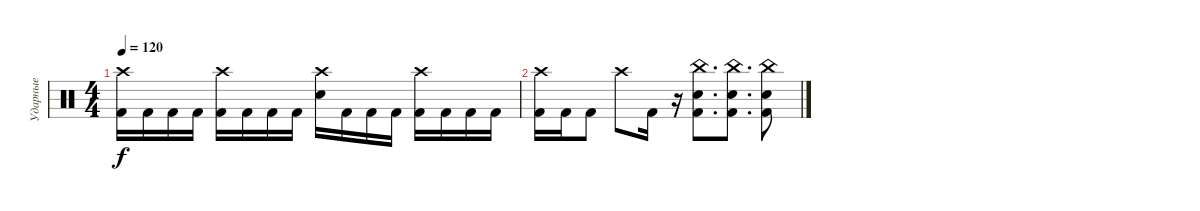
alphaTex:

\track ("Ударные" "Ударные") {instrument percussion}
\staff {score}
\articulation defaults
\ts (4 4)
\tempo 120
\clef neutral
\ks c
("Crash high (hit)" "Kick (hit) 2").16{dy f} "Kick (hit) 2".16 "Kick (hit) 2".16 "Kick (hit) 2".16 ("Crash high (hit)" "Kick (hit) 2").16 "Kick (hit) 2".16 "Kick (hit) 2".16 "Kick (hit) 2".16 ("Crash high (hit)" "Electric Snare (hit)").16 "Kick (hit) 2".16 "Kick (hit) 2".16 "Kick (hit) 2".16 ("Crash high (hit)" "Kick (hit) 2").16 "Kick (hit) 2".16 "Kick (hit) 2".16 "Kick (hit) 2".16 |
("Crash high (hit)" "Kick (hit) 2").16 "Kick (hit) 2".16 "Kick (hit) 2".8 "Crash high (hit)".8 "Kick (hit) 2".16 r.16 ("China (hit)" "Electric Snare (hit)" "Kick (hit) 2").8{d} ("China (hit)" "Electric Snare (hit)" "Kick (hit) 2").8{d} ("China (hit)" "Electric Snare (hit)" "Kick (hit) 2").8
